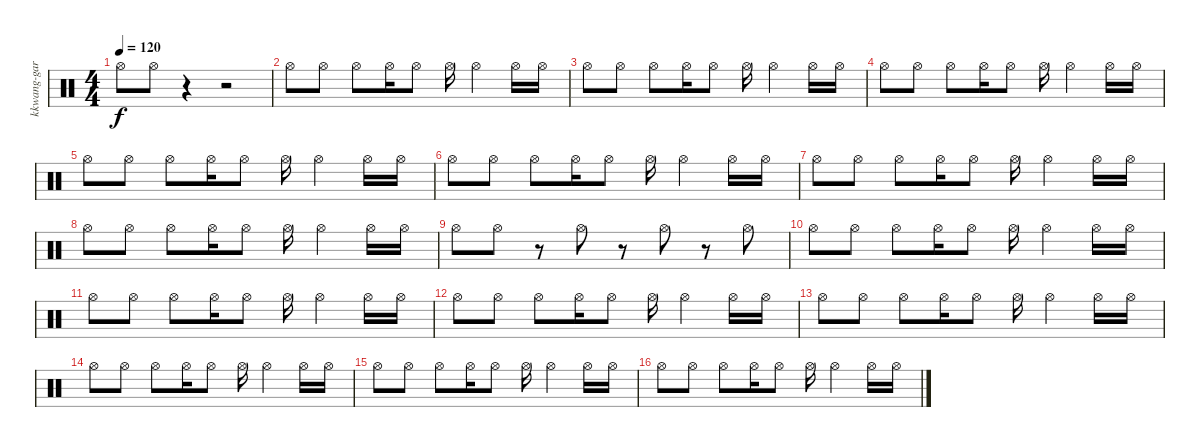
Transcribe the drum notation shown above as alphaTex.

\track ("kkwang-gari" "kkwang-gar") {instrument percussion}
\staff {score}
\articulation defaults
\ts (4 4)
\tempo 120
\clef neutral
\ks c "Hi-Hat (open)".8{dy f} "Hi-Hat (open)".8
r.4 r.2 |
"Hi-Hat (open)".8 "Hi-Hat (open)".8 "Hi-Hat (open)".8 "Hi-Hat (open)".16 "Hi-Hat (open)".8 "Hi-Hat (open)".16 "Hi-Hat (open)".4 "Hi-Hat (open)".16 "Hi-Hat (open)".16 |
"Hi-Hat (open)".8 "Hi-Hat (open)".8 "Hi-Hat (open)".8 "Hi-Hat (open)".16 "Hi-Hat (open)".8 "Hi-Hat (open)".16 "Hi-Hat (open)".4 "Hi-Hat (open)".16 "Hi-Hat (open)".16 |
"Hi-Hat (open)".8 "Hi-Hat (open)".8 "Hi-Hat (open)".8 "Hi-Hat (open)".16 "Hi-Hat (open)".8 "Hi-Hat (open)".16 "Hi-Hat (open)".4 "Hi-Hat (open)".16 "Hi-Hat (open)".16 |
"Hi-Hat (open)".8 "Hi-Hat (open)".8 "Hi-Hat (open)".8 "Hi-Hat (open)".16 "Hi-Hat (open)".8 "Hi-Hat (open)".16 "Hi-Hat (open)".4 "Hi-Hat (open)".16 "Hi-Hat (open)".16 |
"Hi-Hat (open)".8 "Hi-Hat (open)".8 "Hi-Hat (open)".8 "Hi-Hat (open)".16 "Hi-Hat (open)".8 "Hi-Hat (open)".16 "Hi-Hat (open)".4 "Hi-Hat (open)".16 "Hi-Hat (open)".16 |
"Hi-Hat (open)".8 "Hi-Hat (open)".8 "Hi-Hat (open)".8 "Hi-Hat (open)".16 "Hi-Hat (open)".8 "Hi-Hat (open)".16 "Hi-Hat (open)".4 "Hi-Hat (open)".16 "Hi-Hat (open)".16 |
"Hi-Hat (open)".8 "Hi-Hat (open)".8 "Hi-Hat (open)".8 "Hi-Hat (open)".16 "Hi-Hat (open)".8 "Hi-Hat (open)".16 "Hi-Hat (open)".4 "Hi-Hat (open)".16 "Hi-Hat (open)".16 |
"Hi-Hat (open)".8 "Hi-Hat (open)".8 r.8 "Hi-Hat (open)".8 r.8 "Hi-Hat (open)".8 r.8 "Hi-Hat (open)".8 |
"Hi-Hat (open)".8 "Hi-Hat (open)".8 "Hi-Hat (open)".8 "Hi-Hat (open)".16 "Hi-Hat (open)".8 "Hi-Hat (open)".16 "Hi-Hat (open)".4 "Hi-Hat (open)".16 "Hi-Hat (open)".16 |
"Hi-Hat (open)".8 "Hi-Hat (open)".8 "Hi-Hat (open)".8 "Hi-Hat (open)".16 "Hi-Hat (open)".8 "Hi-Hat (open)".16 "Hi-Hat (open)".4 "Hi-Hat (open)".16 "Hi-Hat (open)".16 |
"Hi-Hat (open)".8 "Hi-Hat (open)".8 "Hi-Hat (open)".8 "Hi-Hat (open)".16 "Hi-Hat (open)".8 "Hi-Hat (open)".16 "Hi-Hat (open)".4 "Hi-Hat (open)".16 "Hi-Hat (open)".16 |
"Hi-Hat (open)".8 "Hi-Hat (open)".8 "Hi-Hat (open)".8 "Hi-Hat (open)".16 "Hi-Hat (open)".8 "Hi-Hat (open)".16 "Hi-Hat (open)".4 "Hi-Hat (open)".16 "Hi-Hat (open)".16 |
"Hi-Hat (open)".8 "Hi-Hat (open)".8 "Hi-Hat (open)".8 "Hi-Hat (open)".16 "Hi-Hat (open)".8 "Hi-Hat (open)".16 "Hi-Hat (open)".4 "Hi-Hat (open)".16 "Hi-Hat (open)".16 |
"Hi-Hat (open)".8 "Hi-Hat (open)".8 "Hi-Hat (open)".8 "Hi-Hat (open)".16 "Hi-Hat (open)".8 "Hi-Hat (open)".16 "Hi-Hat (open)".4 "Hi-Hat (open)".16 "Hi-Hat (open)".16 |
"Hi-Hat (open)".8 "Hi-Hat (open)".8 "Hi-Hat (open)".8 "Hi-Hat (open)".16 "Hi-Hat (open)".8 "Hi-Hat (open)".16 "Hi-Hat (open)".4 "Hi-Hat (open)".16 "Hi-Hat (open)".16
